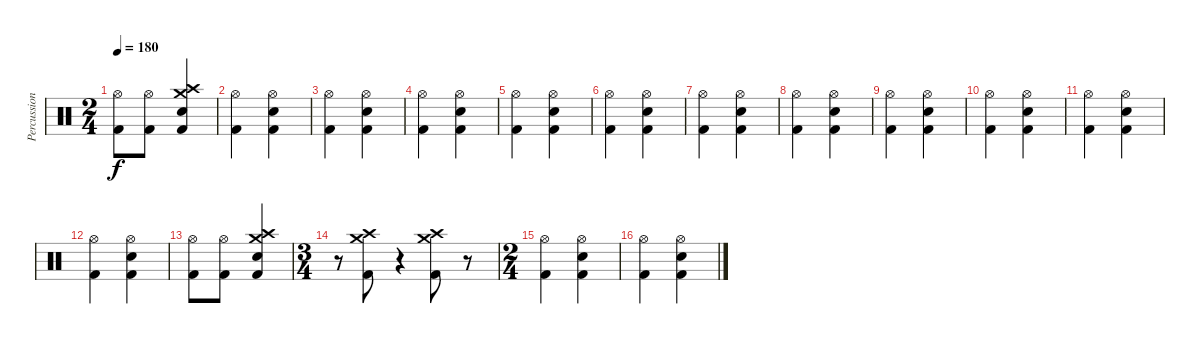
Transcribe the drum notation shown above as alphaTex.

\track ("Percussion" "Percussion") {instrument percussion}
\staff {score}
\articulation defaults
\ts (2 4)
\tempo 180
\clef neutral
\ks c
("Hi-Hat (open)" "Kick (hit) 2").8{dy f} ("Hi-Hat (open)" "Kick (hit) 2").8 ("Crash medium (hit)" "Crash high (hit)" "Snare (hit) 2" "Kick (hit) 2").4 |
("Hi-Hat (open)" "Kick (hit) 2").4 ("Hi-Hat (open)" "Snare (hit) 2" "Kick (hit) 2").4 |
("Hi-Hat (open)" "Kick (hit) 2").4 ("Hi-Hat (open)" "Snare (hit) 2" "Kick (hit) 2").4 |
("Hi-Hat (open)" "Kick (hit) 2").4 ("Hi-Hat (open)" "Snare (hit) 2" "Kick (hit) 2").4 |
("Hi-Hat (open)" "Kick (hit) 2").4 ("Hi-Hat (open)" "Snare (hit) 2" "Kick (hit) 2").4 |
("Hi-Hat (open)" "Kick (hit) 2").4 ("Hi-Hat (open)" "Snare (hit) 2" "Kick (hit) 2").4 |
("Hi-Hat (open)" "Kick (hit) 2").4 ("Hi-Hat (open)" "Snare (hit) 2" "Kick (hit) 2").4 |
("Hi-Hat (open)" "Kick (hit) 2").4 ("Hi-Hat (open)" "Snare (hit) 2" "Kick (hit) 2").4 |
("Hi-Hat (open)" "Kick (hit) 2").4 ("Hi-Hat (open)" "Snare (hit) 2" "Kick (hit) 2").4 |
("Hi-Hat (open)" "Kick (hit) 2").4 ("Hi-Hat (open)" "Snare (hit) 2" "Kick (hit) 2").4 |
("Hi-Hat (open)" "Kick (hit) 2").4 ("Hi-Hat (open)" "Snare (hit) 2" "Kick (hit) 2").4 |
("Hi-Hat (open)" "Kick (hit) 2").4 ("Hi-Hat (open)" "Snare (hit) 2" "Kick (hit) 2").4 |
("Hi-Hat (open)" "Kick (hit) 2").8 ("Hi-Hat (open)" "Kick (hit) 2").8 ("Crash medium (hit)" "Crash high (hit)" "Snare (hit) 2" "Kick (hit) 2").4 |
\ts (3 4)
r.8 ("Crash medium (hit)" "Crash high (hit)" "Kick (hit) 2").8 r.4 ("Crash medium (hit)" "Crash high (hit)" "Kick (hit) 2").8 r.8 |
\ts (2 4)
("Hi-Hat (open)" "Kick (hit) 2").4 ("Hi-Hat (open)" "Snare (hit) 2" "Kick (hit) 2").4 |
("Hi-Hat (open)" "Kick (hit) 2").4 ("Hi-Hat (open)" "Snare (hit) 2" "Kick (hit) 2").4
